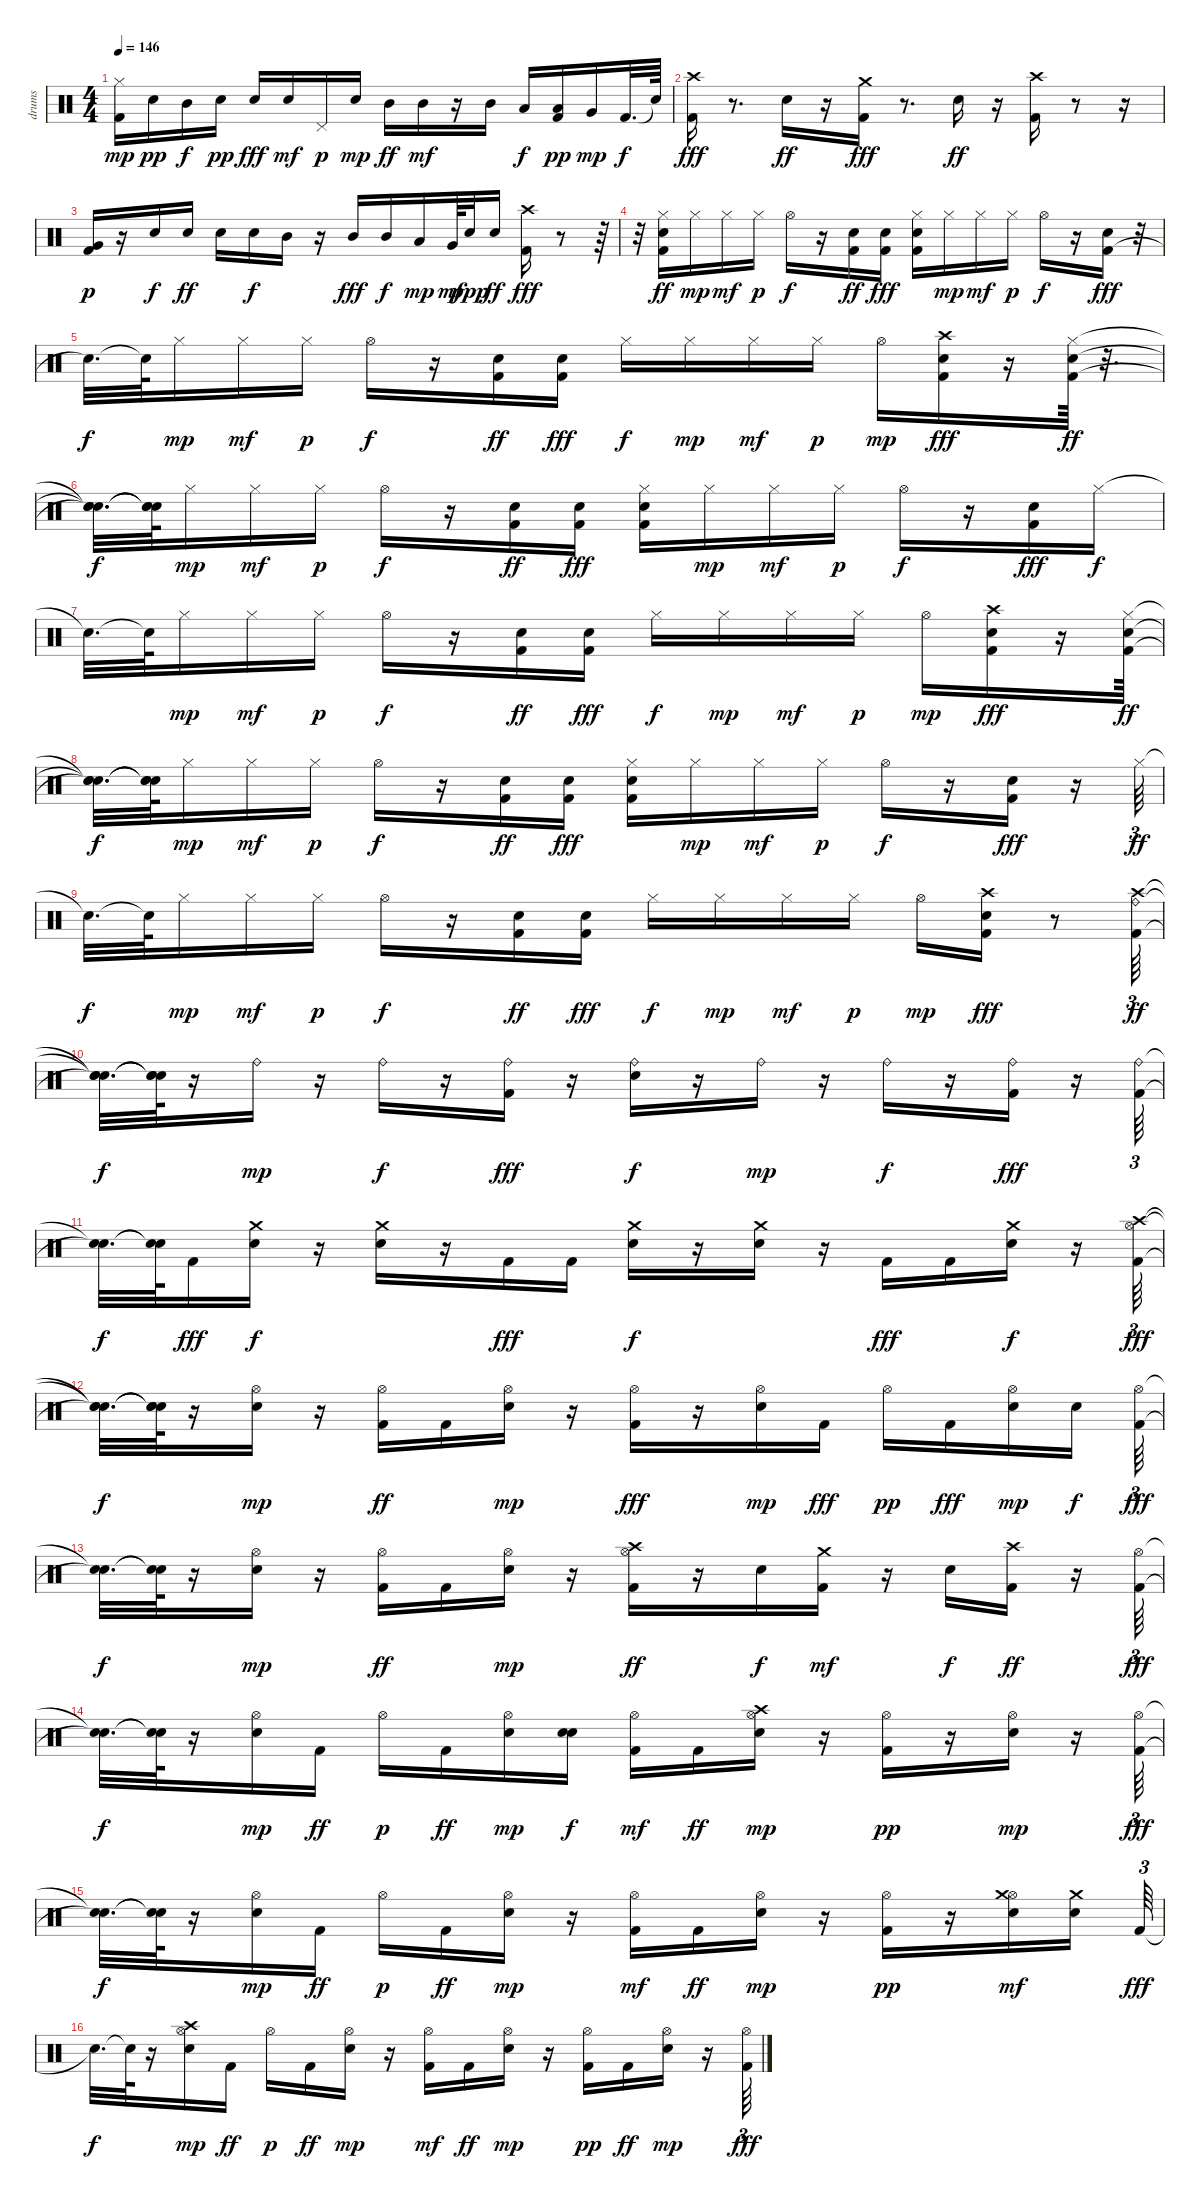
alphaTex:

\track ("drums" "drums") {instrument percussion}
\staff {score}
\articulation defaults
\ts (4 4)
\tempo 146
\clef neutral
\ks c
("Kick (hit) 2" "Hi-Hat (closed)").16{dy mp} "Snare (hit) 2".16{dy pp} "Mid Tom (hit)".16{dy f} "Snare (hit) 2".16{dy pp} "Electric Snare (hit)".16{dy fff} "Electric Snare (hit)".16{dy mf} "Pedal Hi-Hat (hit)".16{dy p} "Snare (hit) 2".16{dy mp} "Mid Tom (hit)".16{dy ff} "Mid Tom (hit)".16{dy mf} r.16 "Mid Tom (hit)".16 "Low Tom (hit)".16{dy f} ("Low Tom (hit)" "Kick (hit) 2").16{dy pp} "Very Low Tom (hit)".16{dy mp} "Kick (hit) 2".32{d dy f} "Snare (hit)"{t}.64 |
("Crash high (hit)" "Kick (hit) 2").16{dy fff} r.8{d} "Electric Snare (hit)".16{dy ff} r.16 ("Kick (hit) 2" "Crash medium (hit)").16{dy fff} r.8{d} "Electric Snare (hit)".16{dy ff} r.16 ("Kick (hit) 2" "Crash high (hit)").16 r.8 r.16 |
("Kick (hit) 2" "Very Low Tom (hit)").16{dy p} r.16 "Electric Snare (hit)".16{dy f} "Snare (hit) 2".16{dy ff} "Electric Snare (hit)".16 "Electric Snare (hit)".16{dy f} "Mid Tom (hit)".16 r.16 "Mid Tom (hit)".16{dy fff} "Mid Tom (hit)".16{dy f} "Low Tom (hit)".16{dy mp} "Very Low Tom (hit)".64{dy mf} "Electric Snare (hit)".32{dy ppp} "Electric Snare (hit)".16{dy ff} ("Crash high (hit)" "Kick (hit) 2").16{dy fff} r.8 r.64 |
r.32 ("Hi-Hat (closed)" "Kick (hit) 2" "Snare (hit) 2").16{dy ff} "Hi-Hat (closed)".16{dy mp} "Hi-Hat (closed)".16{dy mf} "Hi-Hat (closed)".16{dy p} "Hi-Hat (open)".16{dy f} r.16 ("Kick (hit) 2" "Snare (hit) 2").16{dy ff} ("Kick (hit) 2" "Snare (hit) 2").16{dy fff} ("Hi-Hat (closed)" "Kick (hit) 2" "Snare (hit) 2").16 "Hi-Hat (closed)".16{dy mp} "Hi-Hat (closed)".16{dy mf} "Hi-Hat (closed)".16{dy p} "Hi-Hat (open)".16{dy f} r.16 ("Kick (hit) 2" "Snare (hit) 2").16{dy fff} r.32 |
"Snare (hit)"{t}.32{d dy f} "Snare (hit)"{t}.64 "Hi-Hat (closed)".16{dy mp} "Hi-Hat (closed)".16{dy mf} "Hi-Hat (closed)".16{dy p} "Hi-Hat (open)".16{dy f} r.16 ("Kick (hit) 2" "Snare (hit) 2").16{dy ff} ("Kick (hit) 2" "Snare (hit) 2").16{dy fff} "Hi-Hat (closed)".16{dy f} "Hi-Hat (closed)".16{dy mp} "Hi-Hat (closed)".16{dy mf} "Hi-Hat (closed)".16{dy p} "Hi-Hat (open)".16{dy mp} ("Crash high (hit)" "Snare (hit) 2" "Kick (hit) 2").16{dy fff} r.16 ("Hi-Hat (closed)" "Kick (hit) 2" "Snare (hit) 2").64{dy ff} r.32{d} |
("Snare (hit)"{t} "Snare (hit)"{t} "Snare (hit)"{t}).32{d dy f} ("Snare (hit)"{t} "Snare (hit)"{t} "Snare (hit)"{t}).64 "Hi-Hat (closed)".16{dy mp} "Hi-Hat (closed)".16{dy mf} "Hi-Hat (closed)".16{dy p} "Hi-Hat (open)".16{dy f} r.16 ("Kick (hit) 2" "Snare (hit) 2").16{dy ff} ("Kick (hit) 2" "Snare (hit) 2").16{dy fff} ("Hi-Hat (closed)" "Kick (hit) 2" "Snare (hit) 2").16 "Hi-Hat (closed)".16{dy mp} "Hi-Hat (closed)".16{dy mf} "Hi-Hat (closed)".16{dy p} "Hi-Hat (open)".16{dy f} r.16 ("Kick (hit) 2" "Snare (hit) 2").16{dy fff} "Hi-Hat (closed)".16{dy f} |
"Snare (hit)"{t}.32{d} "Snare (hit)"{t}.64 "Hi-Hat (closed)".16{dy mp} "Hi-Hat (closed)".16{dy mf} "Hi-Hat (closed)".16{dy p} "Hi-Hat (open)".16{dy f} r.16 ("Kick (hit) 2" "Snare (hit) 2").16{dy ff} ("Kick (hit) 2" "Snare (hit) 2").16{dy fff} "Hi-Hat (closed)".16{dy f} "Hi-Hat (closed)".16{dy mp} "Hi-Hat (closed)".16{dy mf} "Hi-Hat (closed)".16{dy p} "Hi-Hat (open)".16{dy mp} ("Crash high (hit)" "Snare (hit) 2" "Kick (hit) 2").16{dy fff} r.16 ("Hi-Hat (closed)" "Kick (hit) 2" "Snare (hit) 2").64{dy ff} |
("Snare (hit)"{t} "Snare (hit)"{t} "Snare (hit)"{t}).32{d dy f} ("Snare (hit)"{t} "Snare (hit)"{t} "Snare (hit)"{t}).64 "Hi-Hat (closed)".16{dy mp} "Hi-Hat (closed)".16{dy mf} "Hi-Hat (closed)".16{dy p} "Hi-Hat (open)".16{dy f} r.16 ("Kick (hit) 2" "Snare (hit) 2").16{dy ff} ("Kick (hit) 2" "Snare (hit) 2").16{dy fff} ("Hi-Hat (closed)" "Kick (hit) 2" "Snare (hit) 2").16 "Hi-Hat (closed)".16{dy mp} "Hi-Hat (closed)".16{dy mf} "Hi-Hat (closed)".16{dy p} "Hi-Hat (open)".16{dy f} r.16 ("Kick (hit) 2" "Snare (hit) 2").16{dy fff} r.16 "Hi-Hat (closed)".64{tu (3 2) dy ff} |
"Snare (hit)"{t}.32{d dy f} "Snare (hit)"{t}.64 "Hi-Hat (closed)".16{dy mp} "Hi-Hat (closed)".16{dy mf} "Hi-Hat (closed)".16{dy p} "Hi-Hat (open)".16{dy f} r.16 ("Kick (hit) 2" "Snare (hit) 2").16{dy ff} ("Kick (hit) 2" "Snare (hit) 2").16{dy fff} "Hi-Hat (closed)".16{dy f} "Hi-Hat (closed)".16{dy mp} "Hi-Hat (closed)".16{dy mf} "Hi-Hat (closed)".16{dy p} "Hi-Hat (open)".16{dy mp} ("Crash high (hit)" "Snare (hit) 2" "Kick (hit) 2").16{dy fff} r.8 ("Kick (hit) 2" "Ride (bell)" "Crash high (hit)").64{tu (3 2) dy ff} |
("Snare (hit)"{t} "Snare (hit)"{t} "Snare (hit)"{t}).32{d dy f} ("Snare (hit)"{t} "Snare (hit)"{t} "Snare (hit)"{t}).64 r.16 "Ride (bell)".16{dy mp} r.16 "Ride (bell)".16{dy f} r.16 ("Ride (bell)" "Kick (hit) 2").16{dy fff} r.16 ("Electric Snare (hit)" "Ride (bell)").16{dy f} r.16 "Ride (bell)".16{dy mp} r.16 "Ride (bell)".16{dy f} r.16 ("Ride (bell)" "Kick (hit) 2").16{dy fff} r.16 ("Kick (hit) 2" "Ride (bell)").64{tu (3 2)} |
("Snare (hit)"{t} "Snare (hit)"{t}).32{d dy f} ("Snare (hit)"{t} "Snare (hit)"{t}).64 "Kick (hit) 2".16{dy fff} ("Electric Snare (hit)" "Crash medium (hit)").16{dy f} r.16 ("Electric Snare (hit)" "Crash medium (hit)").16 r.16 "Kick (hit) 2".16{dy fff} "Kick (hit) 2".16 ("Electric Snare (hit)" "Crash medium (hit)").16{dy f} r.16 ("Electric Snare (hit)" "Crash medium (hit)").16 r.16 "Kick (hit) 2".16{dy fff} "Kick (hit) 2".16 ("Electric Snare (hit)" "Crash medium (hit)").16{dy f} r.16 ("Crash high (hit)" "Hi-Hat (open)" "Kick (hit) 2").64{tu (3 2) dy fff} |
("Snare (hit)"{t} "Snare (hit)"{t} "Snare (hit)"{t}).32{d dy f} ("Snare (hit)"{t} "Snare (hit)"{t} "Snare (hit)"{t}).64 r.16 ("Hi-Hat (open)" "Electric Snare (hit)").16{dy mp} r.16 ("Hi-Hat (open)" "Kick (hit) 2").16{dy ff} "Kick (hit) 2".16 ("Hi-Hat (open)" "Electric Snare (hit)").16{dy mp} r.16 ("Hi-Hat (open)" "Kick (hit) 2").16{dy fff} r.16 ("Hi-Hat (open)" "Electric Snare (hit)").16{dy mp} "Kick (hit) 2".16{dy fff} "Hi-Hat (open)".16{dy pp} "Kick (hit) 2".16{dy fff} ("Hi-Hat (open)" "Electric Snare (hit)").16{dy mp} "Electric Snare (hit)".16{dy f} ("Hi-Hat (open)" "Kick (hit) 2").64{tu (3 2) dy fff} |
("Snare (hit)"{t} "Snare (hit)"{t}).32{d dy f} ("Snare (hit)"{t} "Snare (hit)"{t}).64 r.16 ("Hi-Hat (open)" "Electric Snare (hit)").16{dy mp} r.16 ("Hi-Hat (open)" "Kick (hit) 2").16{dy ff} "Kick (hit) 2".16 ("Hi-Hat (open)" "Electric Snare (hit)").16{dy mp} r.16 ("Crash high (hit)" "Hi-Hat (open)" "Kick (hit) 2").16{dy ff} r.16 "Electric Snare (hit)".16{dy f} ("Crash medium (hit)" "Kick (hit) 2").16{dy mf} r.16 "Electric Snare (hit)".16{dy f} ("Crash high (hit)" "Kick (hit) 2").16{dy ff} r.16 ("Hi-Hat (open)" "Kick (hit) 2").64{tu (3 2) dy fff} |
("Snare (hit)"{t} "Snare (hit)"{t}).32{d dy f} ("Snare (hit)"{t} "Snare (hit)"{t}).64 r.16 ("Hi-Hat (open)" "Electric Snare (hit)").16{dy mp} "Kick (hit) 2".16{dy ff} "Hi-Hat (open)".16{dy p} "Kick (hit) 2".16{dy ff} ("Hi-Hat (open)" "Electric Snare (hit)").16{dy mp} ("Electric Snare (hit)" "Electric Snare (hit)").16{dy f} ("Hi-Hat (open)" "Kick (hit) 2").16{dy mf} "Kick (hit) 2".16{dy ff} ("Crash high (hit)" "Hi-Hat (open)" "Electric Snare (hit)").16{dy mp} r.16 ("Hi-Hat (open)" "Kick (hit) 2").16{dy pp} r.16 ("Hi-Hat (open)" "Electric Snare (hit)").16{dy mp} r.16 ("Hi-Hat (open)" "Kick (hit) 2").64{tu (3 2) dy fff} |
("Snare (hit)"{t} "Snare (hit)"{t}).32{d dy f} ("Snare (hit)"{t} "Snare (hit)"{t}).64 r.16 ("Hi-Hat (open)" "Electric Snare (hit)").16{dy mp} "Kick (hit) 2".16{dy ff} "Hi-Hat (open)".16{dy p} "Kick (hit) 2".16{dy ff} ("Hi-Hat (open)" "Electric Snare (hit)").16{dy mp} r.16 ("Hi-Hat (open)" "Kick (hit) 2").16{dy mf} "Kick (hit) 2".16{dy ff} ("Hi-Hat (open)" "Electric Snare (hit)").16{dy mp} r.16 ("Hi-Hat (open)" "Kick (hit) 2").16{dy pp} r.16 ("Hi-Hat (open)" "Crash medium (hit)" "Electric Snare (hit)").16{dy mf} ("Crash medium (hit)" "Electric Snare (hit)").16 "Kick (hit) 2".64{tu (3 2) dy fff} |
"Snare (hit)"{t}.32{d dy f} "Snare (hit)"{t}.64 r.16 ("Crash high (hit)" "Hi-Hat (open)" "Electric Snare (hit)").16{dy mp} "Kick (hit) 2".16{dy ff} "Hi-Hat (open)".16{dy p} "Kick (hit) 2".16{dy ff} ("Hi-Hat (open)" "Electric Snare (hit)").16{dy mp} r.16 ("Hi-Hat (open)" "Kick (hit) 2").16{dy mf} "Kick (hit) 2".16{dy ff} ("Hi-Hat (open)" "Electric Snare (hit)").16{dy mp} r.16 ("Hi-Hat (open)" "Kick (hit) 2").16{dy pp} "Kick (hit) 2".16{dy ff} ("Hi-Hat (open)" "Electric Snare (hit)").16{dy mp} r.16 ("Hi-Hat (open)" "Kick (hit) 2").64{tu (3 2) dy fff}
